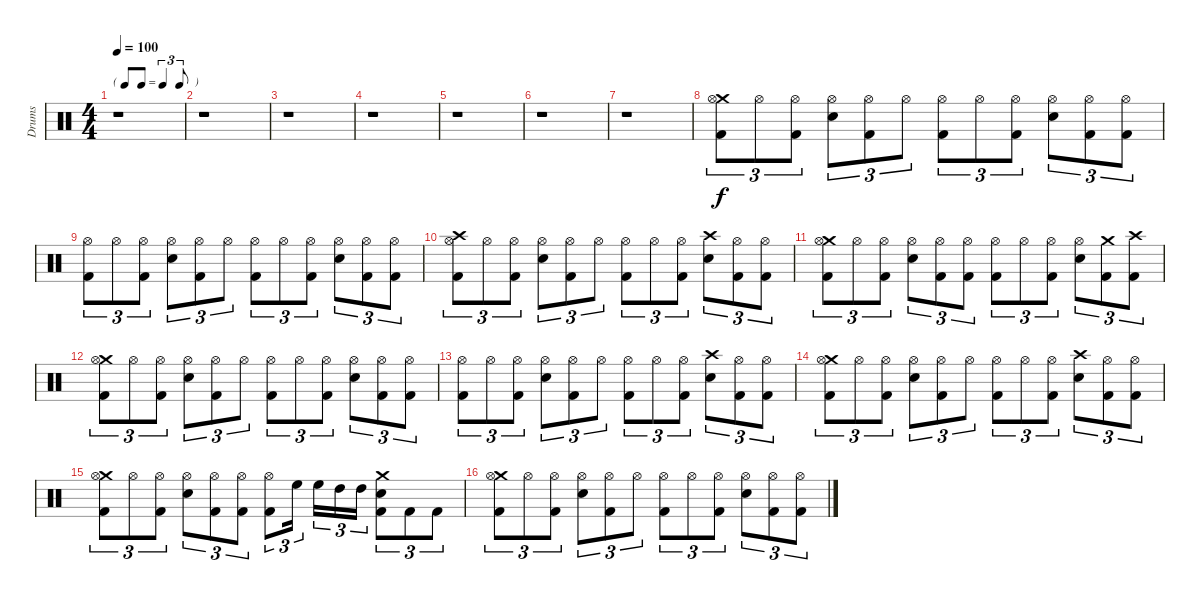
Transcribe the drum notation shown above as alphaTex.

\track ("Drums" "Drums") {instrument percussion}
\staff {score}
\articulation defaults
\ts (4 4)
\tf triplet8th
\tempo 100
\clef neutral
\ks c
r.1{dy f} |
r.1 |
r.1 |
r.1 |
r.1 |
r.1 |
r.1 |
("Crash medium (hit)" "Hi-Hat (open)" "Kick (hit) 2").8{tu (3 2)} "Hi-Hat (open)".8{tu (3 2)} ("Hi-Hat (open)" "Kick (hit) 2").8{tu (3 2)} ("Hi-Hat (open)" "Snare (hit) 2").8{tu (3 2)} ("Hi-Hat (open)" "Kick (hit) 2").8{tu (3 2)} "Hi-Hat (open)".8{tu (3 2)} ("Hi-Hat (open)" "Kick (hit) 2").8{tu (3 2)} "Hi-Hat (open)".8{tu (3 2)} ("Hi-Hat (open)" "Kick (hit) 2").8{tu (3 2)} ("Hi-Hat (open)" "Snare (hit) 2").8{tu (3 2)} ("Hi-Hat (open)" "Kick (hit) 2").8{tu (3 2)} ("Hi-Hat (open)" "Kick (hit) 2").8{tu (3 2)} |
("Hi-Hat (open)" "Kick (hit) 2").8{tu (3 2)} "Hi-Hat (open)".8{tu (3 2)} ("Hi-Hat (open)" "Kick (hit) 2").8{tu (3 2)} ("Hi-Hat (open)" "Snare (hit) 2").8{tu (3 2)} ("Hi-Hat (open)" "Kick (hit) 2").8{tu (3 2)} "Hi-Hat (open)".8{tu (3 2)} ("Hi-Hat (open)" "Kick (hit) 2").8{tu (3 2)} "Hi-Hat (open)".8{tu (3 2)} ("Hi-Hat (open)" "Kick (hit) 2").8{tu (3 2)} ("Hi-Hat (open)" "Snare (hit) 2").8{tu (3 2)} ("Hi-Hat (open)" "Kick (hit) 2").8{tu (3 2)} ("Hi-Hat (open)" "Kick (hit) 2").8{tu (3 2)} |
("Crash high (hit)" "Hi-Hat (open)" "Kick (hit) 2").8{tu (3 2)} "Hi-Hat (open)".8{tu (3 2)} ("Hi-Hat (open)" "Kick (hit) 2").8{tu (3 2)} ("Hi-Hat (open)" "Snare (hit) 2").8{tu (3 2)} ("Hi-Hat (open)" "Kick (hit) 2").8{tu (3 2)} "Hi-Hat (open)".8{tu (3 2)} ("Hi-Hat (open)" "Kick (hit) 2").8{tu (3 2)} "Hi-Hat (open)".8{tu (3 2)} ("Hi-Hat (open)" "Kick (hit) 2").8{tu (3 2)} ("Crash high (hit)" "Snare (hit) 2").8{tu (3 2)} ("Hi-Hat (open)" "Kick (hit) 2").8{tu (3 2)} ("Hi-Hat (open)" "Kick (hit) 2").8{tu (3 2)} |
("Crash medium (hit)" "Hi-Hat (open)" "Kick (hit) 2").8{tu (3 2)} "Hi-Hat (open)".8{tu (3 2)} ("Hi-Hat (open)" "Kick (hit) 2").8{tu (3 2)} ("Hi-Hat (open)" "Snare (hit) 2").8{tu (3 2)} ("Hi-Hat (open)" "Kick (hit) 2").8{tu (3 2)} ("Hi-Hat (open)" "Kick (hit) 2").8{tu (3 2)} ("Hi-Hat (open)" "Kick (hit) 2").8{tu (3 2)} "Hi-Hat (open)".8{tu (3 2)} ("Hi-Hat (open)" "Kick (hit) 2").8{tu (3 2)} ("Hi-Hat (open)" "Snare (hit) 2").8{tu (3 2)} ("Crash medium (hit)" "Kick (hit) 2").8{tu (3 2)} ("Crash high (hit)" "Kick (hit) 2").8{tu (3 2)} |
("Crash medium (hit)" "Hi-Hat (open)" "Kick (hit) 2").8{tu (3 2)} "Hi-Hat (open)".8{tu (3 2)} ("Hi-Hat (open)" "Kick (hit) 2").8{tu (3 2)} ("Hi-Hat (open)" "Snare (hit) 2").8{tu (3 2)} ("Hi-Hat (open)" "Kick (hit) 2").8{tu (3 2)} "Hi-Hat (open)".8{tu (3 2)} ("Hi-Hat (open)" "Kick (hit) 2").8{tu (3 2)} "Hi-Hat (open)".8{tu (3 2)} ("Hi-Hat (open)" "Kick (hit) 2").8{tu (3 2)} ("Hi-Hat (open)" "Snare (hit) 2").8{tu (3 2)} ("Hi-Hat (open)" "Kick (hit) 2").8{tu (3 2)} ("Hi-Hat (open)" "Kick (hit) 2").8{tu (3 2)} |
("Hi-Hat (open)" "Kick (hit) 2").8{tu (3 2)} "Hi-Hat (open)".8{tu (3 2)} ("Hi-Hat (open)" "Kick (hit) 2").8{tu (3 2)} ("Hi-Hat (open)" "Snare (hit) 2").8{tu (3 2)} ("Hi-Hat (open)" "Kick (hit) 2").8{tu (3 2)} "Hi-Hat (open)".8{tu (3 2)} ("Hi-Hat (open)" "Kick (hit) 2").8{tu (3 2)} "Hi-Hat (open)".8{tu (3 2)} ("Hi-Hat (open)" "Kick (hit) 2").8{tu (3 2)} ("Crash high (hit)" "Snare (hit) 2").8{tu (3 2)} ("Hi-Hat (open)" "Kick (hit) 2").8{tu (3 2)} ("Hi-Hat (open)" "Kick (hit) 2").8{tu (3 2)} |
("Crash medium (hit)" "Hi-Hat (open)" "Kick (hit) 2").8{tu (3 2)} "Hi-Hat (open)".8{tu (3 2)} ("Hi-Hat (open)" "Kick (hit) 2").8{tu (3 2)} ("Hi-Hat (open)" "Snare (hit) 2").8{tu (3 2)} ("Hi-Hat (open)" "Kick (hit) 2").8{tu (3 2)} "Hi-Hat (open)".8{tu (3 2)} ("Hi-Hat (open)" "Kick (hit) 2").8{tu (3 2)} "Hi-Hat (open)".8{tu (3 2)} ("Hi-Hat (open)" "Kick (hit) 2").8{tu (3 2)} ("Crash high (hit)" "Snare (hit) 2").8{tu (3 2)} ("Hi-Hat (open)" "Kick (hit) 2").8{tu (3 2)} ("Hi-Hat (open)" "Kick (hit) 2").8{tu (3 2)} |
("Crash medium (hit)" "Hi-Hat (open)" "Kick (hit) 2").8{tu (3 2)} "Hi-Hat (open)".8{tu (3 2)} ("Hi-Hat (open)" "Kick (hit) 2").8{tu (3 2)} ("Hi-Hat (open)" "Snare (hit) 2").8{tu (3 2)} ("Hi-Hat (open)" "Kick (hit) 2").8{tu (3 2)} ("Hi-Hat (open)" "Kick (hit) 2").8{tu (3 2)} ("Hi-Hat (open)" "Kick (hit) 2").8{tu (3 2)} "High Floor Tom (hit)".16{tu (3 2) beam splitsecondary} "High Floor Tom (hit)".16{tu (3 2)} "High Tom (hit)".16{tu (3 2)} "High Tom (hit)".16{tu (3 2)} ("Crash medium (hit)" "Snare (hit) 2" "Kick (hit) 2").8{tu (3 2)} "Kick (hit) 2".8{tu (3 2)} "Kick (hit) 2".8{tu (3 2)} |
("Crash medium (hit)" "Hi-Hat (open)" "Kick (hit) 2").8{tu (3 2)} "Hi-Hat (open)".8{tu (3 2)} ("Hi-Hat (open)" "Kick (hit) 2").8{tu (3 2)} ("Hi-Hat (open)" "Snare (hit) 2").8{tu (3 2)} ("Hi-Hat (open)" "Kick (hit) 2").8{tu (3 2)} "Hi-Hat (open)".8{tu (3 2)} ("Hi-Hat (open)" "Kick (hit) 2").8{tu (3 2)} "Hi-Hat (open)".8{tu (3 2)} ("Hi-Hat (open)" "Kick (hit) 2").8{tu (3 2)} ("Hi-Hat (open)" "Snare (hit) 2").8{tu (3 2)} ("Hi-Hat (open)" "Kick (hit) 2").8{tu (3 2)} ("Hi-Hat (open)" "Kick (hit) 2").8{tu (3 2)}
